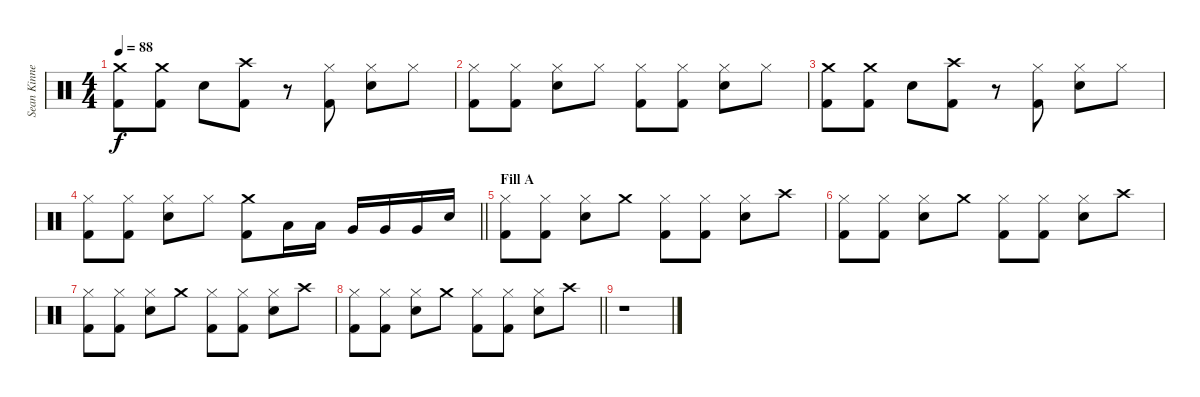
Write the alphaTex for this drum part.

\track ("Sean Kinney" "Sean Kinne") {instrument percussion}
\staff {score}
\articulation defaults
\ts (4 4)
\tempo 88
\clef neutral
\ks c
("Crash medium (hit)" "Kick (hit) 2").8{dy f} ("Crash medium (hit)" "Kick (hit) 2").8 "Electric Snare (hit)".8 ("Crash high (hit)" "Kick (hit) 2").8 r.8 ("Hi-Hat (closed)" "Kick (hit) 2").8 ("Hi-Hat (closed)" "Electric Snare (hit)").8 "Hi-Hat (closed)".8 |
("Hi-Hat (closed)" "Kick (hit) 2").8 ("Hi-Hat (closed)" "Kick (hit) 2").8 ("Hi-Hat (closed)" "Electric Snare (hit)").8 "Hi-Hat (closed)".8 ("Hi-Hat (closed)" "Kick (hit) 2").8 ("Hi-Hat (closed)" "Kick (hit) 2").8 ("Hi-Hat (closed)" "Electric Snare (hit)").8 "Hi-Hat (closed)".8 |
("Crash medium (hit)" "Kick (hit) 2").8 ("Crash medium (hit)" "Kick (hit) 2").8 "Electric Snare (hit)".8 ("Crash high (hit)" "Kick (hit) 2").8 r.8 ("Hi-Hat (closed)" "Kick (hit) 2").8 ("Hi-Hat (closed)" "Electric Snare (hit)").8 "Hi-Hat (closed)".8 |
\barLineRight lightlight
("Hi-Hat (closed)" "Kick (hit) 2").8 ("Hi-Hat (closed)" "Kick (hit) 2").8 ("Hi-Hat (closed)" "Electric Snare (hit)").8 "Hi-Hat (closed)".8 ("Crash medium (hit)" "Kick (hit) 2").8 "Low Tom (hit)".16 "Low Tom (hit)".16 "Very Low Tom (hit)".16 "Very Low Tom (hit)".16 "Very Low Tom (hit)".16 "Electric Snare (hit)".16 |
\section ("" "Fill A")
("Hi-Hat (closed)" "Kick (hit) 2").8 ("Hi-Hat (closed)" "Kick (hit) 2").8 ("Hi-Hat (closed)" "Electric Snare (hit)").8 "Crash medium (hit)".8 ("Hi-Hat (closed)" "Kick (hit) 2").8 ("Hi-Hat (closed)" "Kick (hit) 2").8 ("Hi-Hat (closed)" "Electric Snare (hit)").8 "Crash high (hit)".8 |
("Hi-Hat (closed)" "Kick (hit) 2").8 ("Hi-Hat (closed)" "Kick (hit) 2").8 ("Hi-Hat (closed)" "Electric Snare (hit)").8 "Crash medium (hit)".8 ("Hi-Hat (closed)" "Kick (hit) 2").8 ("Hi-Hat (closed)" "Kick (hit) 2").8 ("Hi-Hat (closed)" "Electric Snare (hit)").8 "Crash high (hit)".8 |
("Hi-Hat (closed)" "Kick (hit) 2").8 ("Hi-Hat (closed)" "Kick (hit) 2").8 ("Hi-Hat (closed)" "Electric Snare (hit)").8 "Crash medium (hit)".8 ("Hi-Hat (closed)" "Kick (hit) 2").8 ("Hi-Hat (closed)" "Kick (hit) 2").8 ("Hi-Hat (closed)" "Electric Snare (hit)").8 "Crash high (hit)".8 |
\barLineRight lightlight
("Hi-Hat (closed)" "Kick (hit) 2").8 ("Hi-Hat (closed)" "Kick (hit) 2").8 ("Hi-Hat (closed)" "Electric Snare (hit)").8 "Crash medium (hit)".8 ("Hi-Hat (closed)" "Kick (hit) 2").8 ("Hi-Hat (closed)" "Kick (hit) 2").8 ("Hi-Hat (closed)" "Electric Snare (hit)").8 "Crash high (hit)".8 |
r.1
